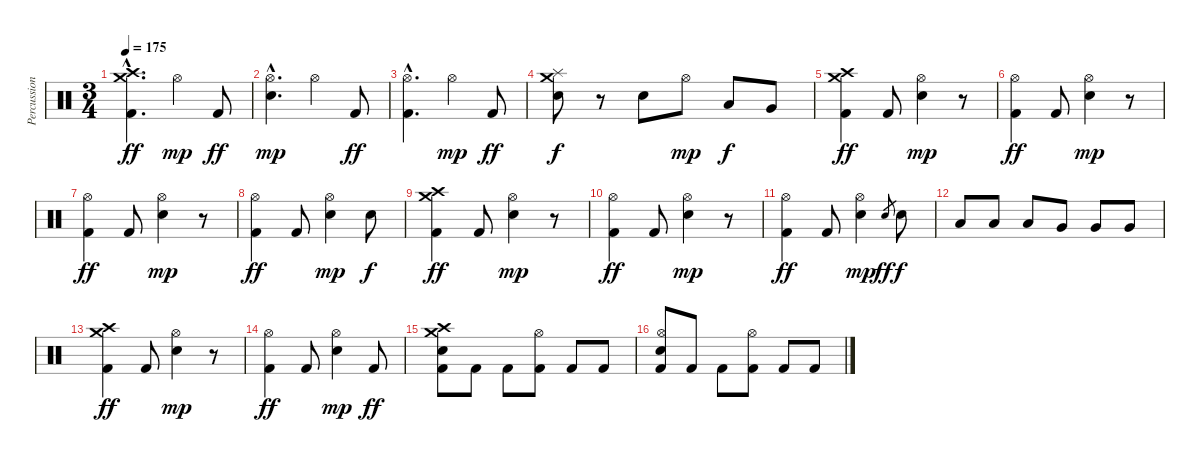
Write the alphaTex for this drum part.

\track ("Percussion" "Percussion") {instrument percussion}
\staff {score}
\articulation defaults
\ts (3 4)
\tempo 175
\clef neutral
\ks c
("Crash medium (hit)"{hac} "Crash high (hit)"{hac} "Kick (hit) 2"{hac}).4{d dy ff} "Hi-Hat (open)".4{dy mp} "Kick (hit) 2".8{dy ff} |
("Hi-Hat (open)"{hac} "Snare (hit) 2"{hac}).4{d dy mp} "Hi-Hat (open)".4 "Kick (hit) 2".8{dy ff} |
("Hi-Hat (open)"{hac} "Kick (hit) 2"{hac}).4{d} "Hi-Hat (open)".4{dy mp} "Kick (hit) 2".8{dy ff} |
("Splash (hit)" "Crash medium (hit)" "Snare (hit) 2").8{dy f} r.8 "Snare (hit) 2".8 "Hi-Hat (open)".8{dy mp} "Low Tom (hit)".8{dy f} "Very Low Tom (hit)".8 |
("Crash medium (hit)" "Crash high (hit)" "Kick (hit) 2").4{dy ff} "Kick (hit) 2".8 ("Hi-Hat (open)" "Snare (hit) 2").4{dy mp} r.8 |
("Hi-Hat (open)" "Kick (hit) 2").4{dy ff} "Kick (hit) 2".8 ("Hi-Hat (open)" "Snare (hit) 2").4{dy mp} r.8 |
("Hi-Hat (open)" "Kick (hit) 2").4{dy ff} "Kick (hit) 2".8 ("Hi-Hat (open)" "Snare (hit) 2").4{dy mp} r.8 |
("Hi-Hat (open)" "Kick (hit) 2").4{dy ff} "Kick (hit) 2".8 ("Hi-Hat (open)" "Snare (hit) 2").4{dy mp} "Snare (hit) 2".8{dy f} |
("Crash medium (hit)" "Crash high (hit)" "Kick (hit) 2").4{dy ff} "Kick (hit) 2".8 ("Hi-Hat (open)" "Snare (hit) 2").4{dy mp} r.8 |
("Hi-Hat (open)" "Kick (hit) 2").4{dy ff} "Kick (hit) 2".8 ("Hi-Hat (open)" "Snare (hit) 2").4{dy mp} r.8 |
("Hi-Hat (open)" "Kick (hit) 2").4{dy ff} "Kick (hit) 2".8 ("Hi-Hat (open)" "Snare (hit) 2").4{dy mp} "Snare (hit) 2"{h}.8{gr dy ff} "Snare (hit) 2".8{dy f} |
"Low Tom (hit)".8 "Low Tom (hit)".8 "Low Tom (hit)".8 "Very Low Tom (hit)".8 "Very Low Tom (hit)".8 "Very Low Tom (hit)".8 |
("Crash medium (hit)" "Crash high (hit)" "Kick (hit) 2").4{dy ff} "Kick (hit) 2".8 ("Hi-Hat (open)" "Snare (hit) 2").4{dy mp} r.8 |
("Hi-Hat (open)" "Kick (hit) 2").4{dy ff} "Kick (hit) 2".8 ("Hi-Hat (open)" "Snare (hit) 2").4{dy mp} "Kick (hit) 2".8{dy ff} |
("Crash medium (hit)" "Crash high (hit)" "Snare (hit) 2" "Kick (hit) 2").8 "Kick (hit) 2".8 "Kick (hit) 2".8 ("Hi-Hat (open)" "Kick (hit) 2").8 "Kick (hit) 2".8 "Kick (hit) 2".8 |
("Hi-Hat (open)" "Snare (hit) 2" "Kick (hit) 2").8 "Kick (hit) 2".8 "Kick (hit) 2".8 ("Hi-Hat (open)" "Kick (hit) 2").8 "Kick (hit) 2".8 "Kick (hit) 2".8
